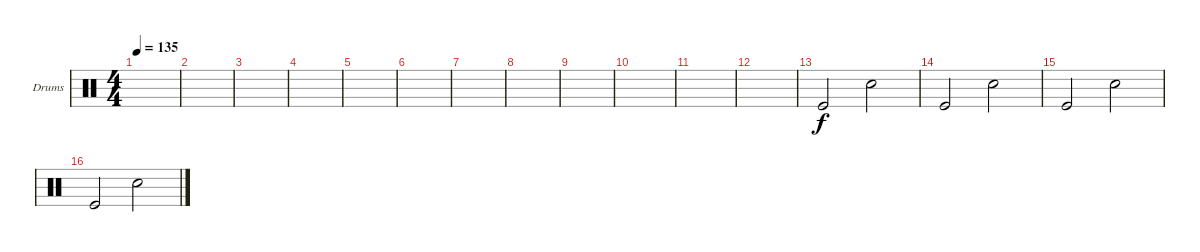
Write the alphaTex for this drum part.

\defaultSystemsLayout 4
\bracketExtendMode groupsimilarinstruments
\firstSystemTrackNameOrientation horizontal
\otherSystemsTrackNameOrientation horizontal
\track ("Drumkit" "Drums") {instrument percussion}
\staff {score}
\articulation defaults
\ts (4 4)
\tempo 135
\clef neutral
\scale
0.472222
\ks c
|
\scale
0.263889 |
\scale
0.263889 |
\scale
0.333333 |
\scale
0.333333 |
\scale
0.333333 |
\scale
0.333333 |
\scale
0.333333 |
\scale
0.333333 |
\scale
0.333333 |
\scale
0.333333 |
\scale
0.333333 |
\scale
0.333333 "Kick (hit)".2 "Snare (hit) 2".2 |
\scale
0.333333 "Kick (hit)".2 "Snare (hit) 2".2 |
\scale
0.333333 "Kick (hit)".2 "Snare (hit) 2".2 |
\scale
0.333333 "Kick (hit)".2 "Snare (hit) 2".2
